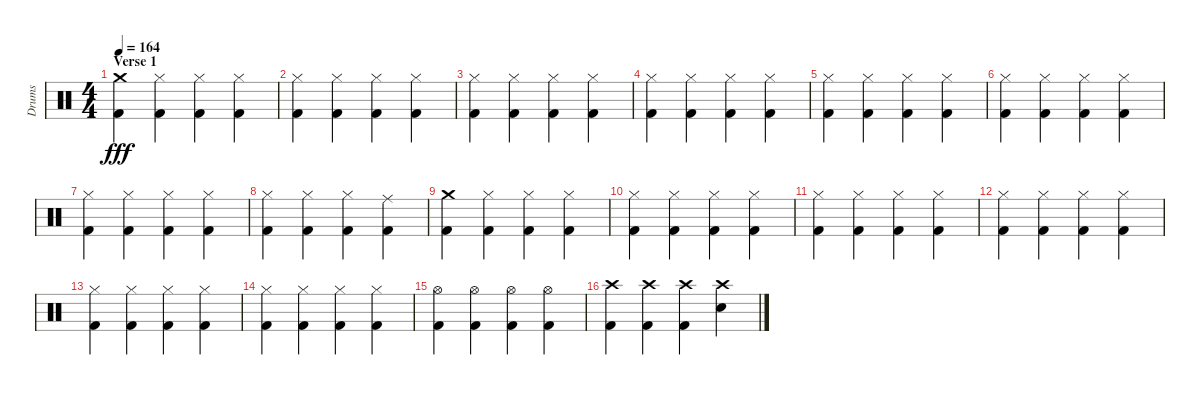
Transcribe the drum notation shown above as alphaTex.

\track ("Drums" "Drums") {instrument percussion}
\staff {score}
\articulation defaults
\ts (4 4)
\section ("" "Verse 1")
\tempo 164
\clef neutral
\ks c
("Crash medium (hit)" "Kick (hit) 2").4{dy fff} ("Hi-Hat (closed)" "Kick (hit) 2").4 ("Hi-Hat (closed)" "Kick (hit) 2").4 ("Hi-Hat (closed)" "Kick (hit) 2").4 |
("Hi-Hat (closed)" "Kick (hit) 2").4 ("Hi-Hat (closed)" "Kick (hit) 2").4 ("Hi-Hat (closed)" "Kick (hit) 2").4 ("Hi-Hat (closed)" "Kick (hit) 2").4 |
("Hi-Hat (closed)" "Kick (hit) 2").4 ("Hi-Hat (closed)" "Kick (hit) 2").4 ("Hi-Hat (closed)" "Kick (hit) 2").4 ("Hi-Hat (closed)" "Kick (hit) 2").4 |
("Hi-Hat (closed)" "Kick (hit) 2").4 ("Hi-Hat (closed)" "Kick (hit) 2").4 ("Hi-Hat (closed)" "Kick (hit) 2").4 ("Hi-Hat (closed)" "Kick (hit) 2").4 |
("Hi-Hat (closed)" "Kick (hit) 2").4 ("Hi-Hat (closed)" "Kick (hit) 2").4 ("Hi-Hat (closed)" "Kick (hit) 2").4 ("Hi-Hat (closed)" "Kick (hit) 2").4 |
("Hi-Hat (closed)" "Kick (hit) 2").4 ("Hi-Hat (closed)" "Kick (hit) 2").4 ("Hi-Hat (closed)" "Kick (hit) 2").4 ("Hi-Hat (closed)" "Kick (hit) 2").4 |
("Hi-Hat (closed)" "Kick (hit) 2").4 ("Hi-Hat (closed)" "Kick (hit) 2").4 ("Hi-Hat (closed)" "Kick (hit) 2").4 ("Hi-Hat (closed)" "Kick (hit) 2").4 |
("Hi-Hat (closed)" "Kick (hit) 2").4 ("Hi-Hat (closed)" "Kick (hit) 2").4 ("Hi-Hat (closed)" "Kick (hit) 2").4 ("Ride (middle)" "Kick (hit) 2").4 |
("Crash medium (hit)" "Kick (hit) 2").4 ("Hi-Hat (closed)" "Kick (hit) 2").4 ("Hi-Hat (closed)" "Kick (hit) 2").4 ("Hi-Hat (closed)" "Kick (hit) 2").4 |
("Hi-Hat (closed)" "Kick (hit) 2").4 ("Hi-Hat (closed)" "Kick (hit) 2").4 ("Hi-Hat (closed)" "Kick (hit) 2").4 ("Hi-Hat (closed)" "Kick (hit) 2").4 |
("Hi-Hat (closed)" "Kick (hit) 2").4 ("Hi-Hat (closed)" "Kick (hit) 2").4 ("Hi-Hat (closed)" "Kick (hit) 2").4 ("Hi-Hat (closed)" "Kick (hit) 2").4 |
("Hi-Hat (closed)" "Kick (hit) 2").4 ("Hi-Hat (closed)" "Kick (hit) 2").4 ("Hi-Hat (closed)" "Kick (hit) 2").4 ("Hi-Hat (closed)" "Kick (hit) 2").4 |
("Hi-Hat (closed)" "Kick (hit) 2").4 ("Hi-Hat (closed)" "Kick (hit) 2").4 ("Hi-Hat (closed)" "Kick (hit) 2").4 ("Hi-Hat (closed)" "Kick (hit) 2").4 |
("Hi-Hat (closed)" "Kick (hit) 2").4 ("Hi-Hat (closed)" "Kick (hit) 2").4 ("Hi-Hat (closed)" "Kick (hit) 2").4 ("Hi-Hat (closed)" "Kick (hit) 2").4 |
("Hi-Hat (open)" "Kick (hit) 2").4 ("Hi-Hat (open)" "Kick (hit) 2").4 ("Hi-Hat (open)" "Kick (hit) 2").4 ("Hi-Hat (open)" "Kick (hit) 2").4 |
("Crash high (hit)" "Kick (hit) 2").4 ("Crash high (hit)" "Kick (hit) 2").4 ("Crash high (hit)" "Kick (hit) 2").4 ("Crash high (hit)" "Electric Snare (hit)").4
